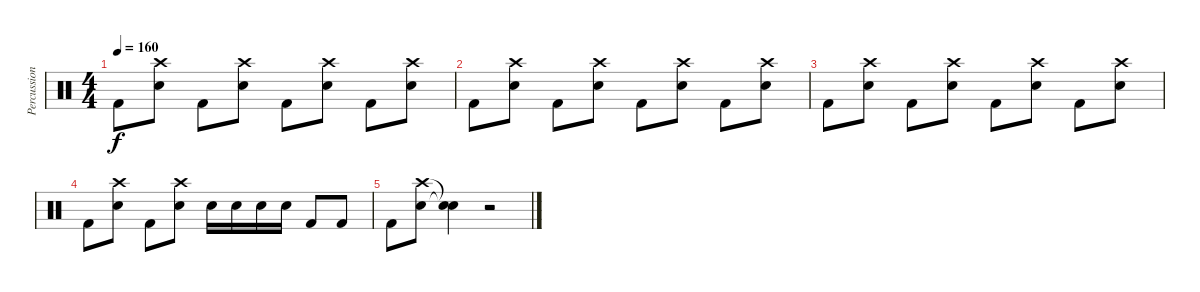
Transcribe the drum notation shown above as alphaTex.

\track ("Percussion" "Percussion") {instrument percussion}
\staff {score}
\articulation defaults
\ts (4 4)
\tempo 160
\clef neutral
\ks c "Kick (hit) 2".8{dy f}
("Crash high (hit)" "Electric Snare (hit)").8 "Kick (hit) 2".8 ("Crash high (hit)" "Electric Snare (hit)").8 "Kick (hit) 2".8 ("Crash high (hit)" "Electric Snare (hit)").8 "Kick (hit) 2".8 ("Crash high (hit)" "Electric Snare (hit)").8 |
"Kick (hit) 2".8 ("Crash high (hit)" "Electric Snare (hit)").8 "Kick (hit) 2".8 ("Crash high (hit)" "Electric Snare (hit)").8 "Kick (hit) 2".8 ("Crash high (hit)" "Electric Snare (hit)").8 "Kick (hit) 2".8 ("Crash high (hit)" "Electric Snare (hit)").8 |
"Kick (hit) 2".8 ("Crash high (hit)" "Electric Snare (hit)").8 "Kick (hit) 2".8 ("Crash high (hit)" "Electric Snare (hit)").8 "Kick (hit) 2".8 ("Crash high (hit)" "Electric Snare (hit)").8 "Kick (hit) 2".8 ("Crash high (hit)" "Electric Snare (hit)").8 |
"Kick (hit) 2".8 ("Crash high (hit)" "Electric Snare (hit)").8 "Kick (hit) 2".8 ("Crash high (hit)" "Electric Snare (hit)").8 "Electric Snare (hit)".16 "Electric Snare (hit)".16 "Electric Snare (hit)".16 "Electric Snare (hit)".16 "Kick (hit) 2".8 "Kick (hit) 2".8 |
"Kick (hit) 2".8 ("Crash high (hit)" "Electric Snare (hit)").8 ("Snare (hit)"{t} "Snare (hit)"{t}).4 r.2
